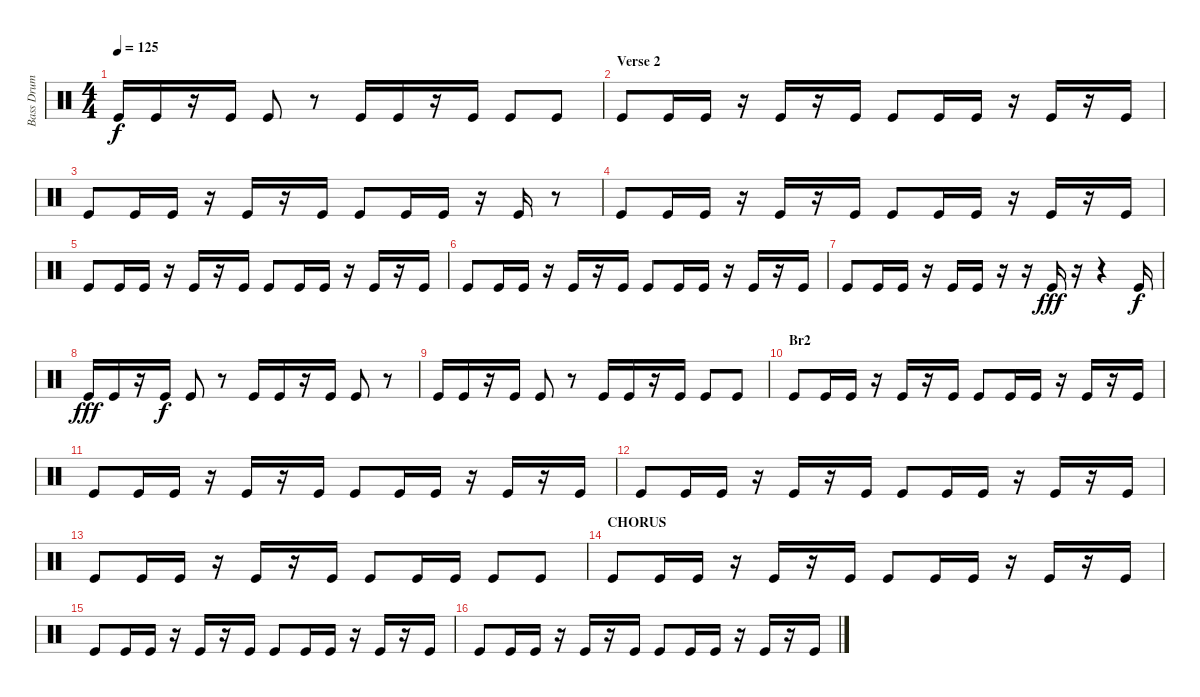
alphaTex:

\track ("Bass Drum Boost" "Bass Drum ") {instrument percussion}
\staff {score}
\articulation defaults
\ts (4 4)
\tempo 125
\clef neutral
\ks c "Kick (hit)".16{dy f} "Kick (hit)".16
r.16 "Kick (hit)".16 "Kick (hit)".8 r.8 "Kick (hit)".16 "Kick (hit)".16 r.16 "Kick (hit)".16 "Kick (hit)".8 "Kick (hit)".8 |
\section ("" "Verse 2")
"Kick (hit)".8 "Kick (hit)".16 "Kick (hit)".16 r.16 "Kick (hit)".16 r.16 "Kick (hit)".16 "Kick (hit)".8 "Kick (hit)".16 "Kick (hit)".16 r.16 "Kick (hit)".16 r.16 "Kick (hit)".16 |
"Kick (hit)".8 "Kick (hit)".16 "Kick (hit)".16 r.16 "Kick (hit)".16 r.16 "Kick (hit)".16 "Kick (hit)".8 "Kick (hit)".16 "Kick (hit)".16 r.16 "Kick (hit)".16 r.8 |
"Kick (hit)".8 "Kick (hit)".16 "Kick (hit)".16 r.16 "Kick (hit)".16 r.16 "Kick (hit)".16 "Kick (hit)".8 "Kick (hit)".16 "Kick (hit)".16 r.16 "Kick (hit)".16 r.16 "Kick (hit)".16 |
"Kick (hit)".8 "Kick (hit)".16 "Kick (hit)".16 r.16 "Kick (hit)".16 r.16 "Kick (hit)".16 "Kick (hit)".8 "Kick (hit)".16 "Kick (hit)".16 r.16 "Kick (hit)".16 r.16 "Kick (hit)".16 |
"Kick (hit)".8 "Kick (hit)".16 "Kick (hit)".16 r.16 "Kick (hit)".16 r.16 "Kick (hit)".16 "Kick (hit)".8 "Kick (hit)".16 "Kick (hit)".16 r.16 "Kick (hit)".16 r.16 "Kick (hit)".16 |
"Kick (hit)".8 "Kick (hit)".16 "Kick (hit)".16 r.16 "Kick (hit)".16 "Kick (hit)".16 r.16 r.16 "Kick (hit)".16{dy fff} r.16 r.4 "Kick (hit)".16{dy f} |
"Kick (hit)".16{dy fff} "Kick (hit)".16 r.16 "Kick (hit)".16{dy f} "Kick (hit)".8 r.8 "Kick (hit)".16 "Kick (hit)".16 r.16 "Kick (hit)".16 "Kick (hit)".8 r.8 |
"Kick (hit)".16 "Kick (hit)".16 r.16 "Kick (hit)".16 "Kick (hit)".8 r.8 "Kick (hit)".16 "Kick (hit)".16 r.16 "Kick (hit)".16 "Kick (hit)".8 "Kick (hit)".8 |
\section ("" "Br2")
"Kick (hit)".8 "Kick (hit)".16 "Kick (hit)".16 r.16 "Kick (hit)".16 r.16 "Kick (hit)".16 "Kick (hit)".8 "Kick (hit)".16 "Kick (hit)".16 r.16 "Kick (hit)".16 r.16 "Kick (hit)".16 |
"Kick (hit)".8 "Kick (hit)".16 "Kick (hit)".16 r.16 "Kick (hit)".16 r.16 "Kick (hit)".16 "Kick (hit)".8 "Kick (hit)".16 "Kick (hit)".16 r.16 "Kick (hit)".16 r.16 "Kick (hit)".16 |
"Kick (hit)".8 "Kick (hit)".16 "Kick (hit)".16 r.16 "Kick (hit)".16 r.16 "Kick (hit)".16 "Kick (hit)".8 "Kick (hit)".16 "Kick (hit)".16 r.16 "Kick (hit)".16 r.16 "Kick (hit)".16 |
"Kick (hit)".8 "Kick (hit)".16 "Kick (hit)".16 r.16 "Kick (hit)".16 r.16 "Kick (hit)".16 "Kick (hit)".8 "Kick (hit)".16 "Kick (hit)".16 "Kick (hit)".8 "Kick (hit)".8 |
\section ("" "CHORUS")
"Kick (hit)".8 "Kick (hit)".16 "Kick (hit)".16 r.16 "Kick (hit)".16 r.16 "Kick (hit)".16 "Kick (hit)".8 "Kick (hit)".16 "Kick (hit)".16 r.16 "Kick (hit)".16 r.16 "Kick (hit)".16 |
"Kick (hit)".8 "Kick (hit)".16 "Kick (hit)".16 r.16 "Kick (hit)".16 r.16 "Kick (hit)".16 "Kick (hit)".8 "Kick (hit)".16 "Kick (hit)".16 r.16 "Kick (hit)".16 r.16 "Kick (hit)".16 |
"Kick (hit)".8 "Kick (hit)".16 "Kick (hit)".16 r.16 "Kick (hit)".16 r.16 "Kick (hit)".16 "Kick (hit)".8 "Kick (hit)".16 "Kick (hit)".16 r.16 "Kick (hit)".16 r.16 "Kick (hit)".16
